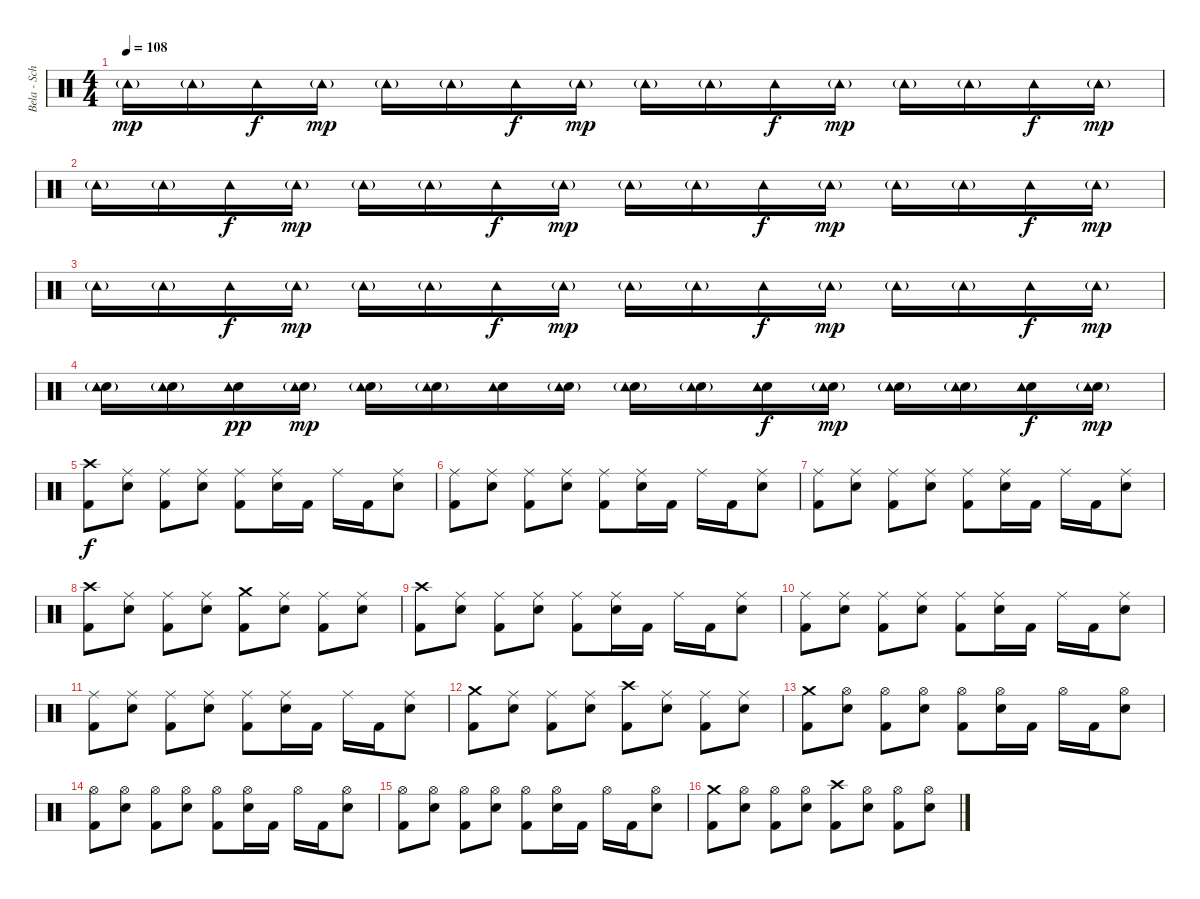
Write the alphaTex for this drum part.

\track ("Bela - Schlagzeug" "Bela - Sch") {instrument percussion}
\staff {score}
\articulation defaults
\ts (4 4)
\tempo 108
\clef neutral
\ks c "Tambourine (hit)"{g}.16{dy mp} "Tambourine (hit)"{g}.16 "Tambourine (hit)".16{dy f} "Tambourine (hit)"{g}.16{dy mp} "Tambourine (hit)"{g}.16 "Tambourine (hit)"{g}.16 "Tambourine (hit)".16{dy f} "Tambourine (hit)"{g}.16{dy mp} "Tambourine (hit)"{g}.16 "Tambourine (hit)"{g}.16 "Tambourine (hit)".16{dy f} "Tambourine (hit)"{g}.16{dy mp} "Tambourine (hit)"{g}.16 "Tambourine (hit)"{g}.16 "Tambourine (hit)".16{dy f} "Tambourine (hit)"{g}.16{dy mp}
|
"Tambourine (hit)"{g}.16 "Tambourine (hit)"{g}.16 "Tambourine (hit)".16{dy f} "Tambourine (hit)"{g}.16{dy mp} "Tambourine (hit)"{g}.16 "Tambourine (hit)"{g}.16 "Tambourine (hit)".16{dy f} "Tambourine (hit)"{g}.16{dy mp} "Tambourine (hit)"{g}.16 "Tambourine (hit)"{g}.16 "Tambourine (hit)".16{dy f} "Tambourine (hit)"{g}.16{dy mp} "Tambourine (hit)"{g}.16 "Tambourine (hit)"{g}.16 "Tambourine (hit)".16{dy f} "Tambourine (hit)"{g}.16{dy mp} |
"Tambourine (hit)"{g}.16 "Tambourine (hit)"{g}.16 "Tambourine (hit)".16{dy f} "Tambourine (hit)"{g}.16{dy mp} "Tambourine (hit)"{g}.16 "Tambourine (hit)"{g}.16 "Tambourine (hit)".16{dy f} "Tambourine (hit)"{g}.16{dy mp} "Tambourine (hit)"{g}.16 "Tambourine (hit)"{g}.16 "Tambourine (hit)".16{dy f} "Tambourine (hit)"{g}.16{dy mp} "Tambourine (hit)"{g}.16 "Tambourine (hit)"{g}.16 "Tambourine (hit)".16{dy f} "Tambourine (hit)"{g}.16{dy mp} |
("Snare (hit) 2" "Tambourine (hit)"{g}).16 ("Snare (hit) 2" "Tambourine (hit)"{g}).16 ("Snare (hit) 2" "Tambourine (hit)").16{dy pp} ("Snare (hit) 2" "Tambourine (hit)"{g}).16{dy mp} ("Snare (hit) 2" "Tambourine (hit)"{g}).16 ("Snare (hit) 2" "Tambourine (hit)"{g}).16 ("Snare (hit) 2" "Tambourine (hit)").16 ("Snare (hit) 2" "Tambourine (hit)"{g}).16 ("Snare (hit) 2" "Tambourine (hit)"{g}).16 ("Snare (hit) 2" "Tambourine (hit)"{g}).16 ("Snare (hit) 2" "Tambourine (hit)").16{dy f} ("Snare (hit) 2" "Tambourine (hit)"{g}).16{dy mp} ("Snare (hit) 2" "Tambourine (hit)"{g}).16 ("Snare (hit) 2" "Tambourine (hit)"{g}).16 ("Snare (hit) 2" "Tambourine (hit)").16{dy f} ("Snare (hit) 2" "Tambourine (hit)"{g}).16{dy mp} |
("Crash high (hit)" "Kick (hit) 2").8{dy f} ("Ride (middle)" "Snare (hit) 2").8 ("Ride (middle)" "Kick (hit) 2").8 ("Ride (middle)" "Snare (hit) 2").8 ("Ride (middle)" "Kick (hit) 2").8 ("Ride (middle)" "Snare (hit) 2").16 "Kick (hit) 2".16 "Ride (middle)".16 "Kick (hit) 2".16 ("Ride (middle)" "Snare (hit) 2").8 |
("Ride (middle)" "Kick (hit) 2").8 ("Ride (middle)" "Snare (hit) 2").8 ("Ride (middle)" "Kick (hit) 2").8 ("Ride (middle)" "Snare (hit) 2").8 ("Ride (middle)" "Kick (hit) 2").8 ("Ride (middle)" "Snare (hit) 2").16 "Kick (hit) 2".16 "Ride (middle)".16 "Kick (hit) 2".16 ("Ride (middle)" "Snare (hit) 2").8 |
("Ride (middle)" "Kick (hit) 2").8 ("Ride (middle)" "Snare (hit) 2").8 ("Ride (middle)" "Kick (hit) 2").8 ("Ride (middle)" "Snare (hit) 2").8 ("Ride (middle)" "Kick (hit) 2").8 ("Ride (middle)" "Snare (hit) 2").16 "Kick (hit) 2".16 "Ride (middle)".16 "Kick (hit) 2".16 ("Ride (middle)" "Snare (hit) 2").8 |
("Crash high (hit)" "Kick (hit) 2").8 ("Ride (middle)" "Snare (hit) 2").8 ("Ride (middle)" "Kick (hit) 2").8 ("Ride (middle)" "Snare (hit) 2").8 ("Crash medium (hit)" "Kick (hit) 2").8 ("Ride (middle)" "Snare (hit) 2").8 ("Ride (middle)" "Kick (hit) 2").8 ("Ride (middle)" "Snare (hit) 2").8 |
("Crash high (hit)" "Kick (hit) 2").8 ("Ride (middle)" "Snare (hit) 2").8 ("Ride (middle)" "Kick (hit) 2").8 ("Ride (middle)" "Snare (hit) 2").8 ("Ride (middle)" "Kick (hit) 2").8 ("Ride (middle)" "Snare (hit) 2").16 "Kick (hit) 2".16 "Ride (middle)".16 "Kick (hit) 2".16 ("Ride (middle)" "Snare (hit) 2").8 |
("Ride (middle)" "Kick (hit) 2").8 ("Ride (middle)" "Snare (hit) 2").8 ("Ride (middle)" "Kick (hit) 2").8 ("Ride (middle)" "Snare (hit) 2").8 ("Ride (middle)" "Kick (hit) 2").8 ("Ride (middle)" "Snare (hit) 2").16 "Kick (hit) 2".16 "Ride (middle)".16 "Kick (hit) 2".16 ("Ride (middle)" "Snare (hit) 2").8 |
("Ride (middle)" "Kick (hit) 2").8 ("Ride (middle)" "Snare (hit) 2").8 ("Ride (middle)" "Kick (hit) 2").8 ("Ride (middle)" "Snare (hit) 2").8 ("Ride (middle)" "Kick (hit) 2").8 ("Ride (middle)" "Snare (hit) 2").16 "Kick (hit) 2".16 "Ride (middle)".16 "Kick (hit) 2".16 ("Ride (middle)" "Snare (hit) 2").8 |
("Crash medium (hit)" "Kick (hit) 2").8 ("Ride (middle)" "Snare (hit) 2").8 ("Ride (middle)" "Kick (hit) 2").8 ("Ride (middle)" "Snare (hit) 2").8 ("Crash high (hit)" "Kick (hit) 2").8 ("Ride (middle)" "Snare (hit) 2").8 ("Ride (middle)" "Kick (hit) 2").8 ("Ride (middle)" "Snare (hit) 2").8 |
("Crash medium (hit)" "Kick (hit) 2").8 ("Hi-Hat (open)" "Snare (hit) 2").8 ("Hi-Hat (open)" "Kick (hit) 2").8 ("Hi-Hat (open)" "Snare (hit) 2").8 ("Hi-Hat (open)" "Kick (hit) 2").8 ("Hi-Hat (open)" "Snare (hit) 2").16 "Kick (hit) 2".16 "Hi-Hat (open)".16 "Kick (hit) 2".16 ("Hi-Hat (open)" "Snare (hit) 2").8 |
("Hi-Hat (open)" "Kick (hit) 2").8 ("Hi-Hat (open)" "Snare (hit) 2").8 ("Hi-Hat (open)" "Kick (hit) 2").8 ("Hi-Hat (open)" "Snare (hit) 2").8 ("Hi-Hat (open)" "Kick (hit) 2").8 ("Hi-Hat (open)" "Snare (hit) 2").16 "Kick (hit) 2".16 "Hi-Hat (open)".16 "Kick (hit) 2".16 ("Hi-Hat (open)" "Snare (hit) 2").8 |
("Hi-Hat (open)" "Kick (hit) 2").8 ("Hi-Hat (open)" "Snare (hit) 2").8 ("Hi-Hat (open)" "Kick (hit) 2").8 ("Hi-Hat (open)" "Snare (hit) 2").8 ("Hi-Hat (open)" "Kick (hit) 2").8 ("Hi-Hat (open)" "Snare (hit) 2").16 "Kick (hit) 2".16 "Hi-Hat (open)".16 "Kick (hit) 2".16 ("Hi-Hat (open)" "Snare (hit) 2").8 |
("Crash medium (hit)" "Kick (hit) 2").8 ("Hi-Hat (open)" "Snare (hit) 2").8 ("Hi-Hat (open)" "Kick (hit) 2").8 ("Hi-Hat (open)" "Snare (hit) 2").8 ("Crash high (hit)" "Kick (hit) 2").8 ("Hi-Hat (open)" "Snare (hit) 2").8 ("Hi-Hat (open)" "Kick (hit) 2").8 ("Hi-Hat (open)" "Snare (hit) 2").8
